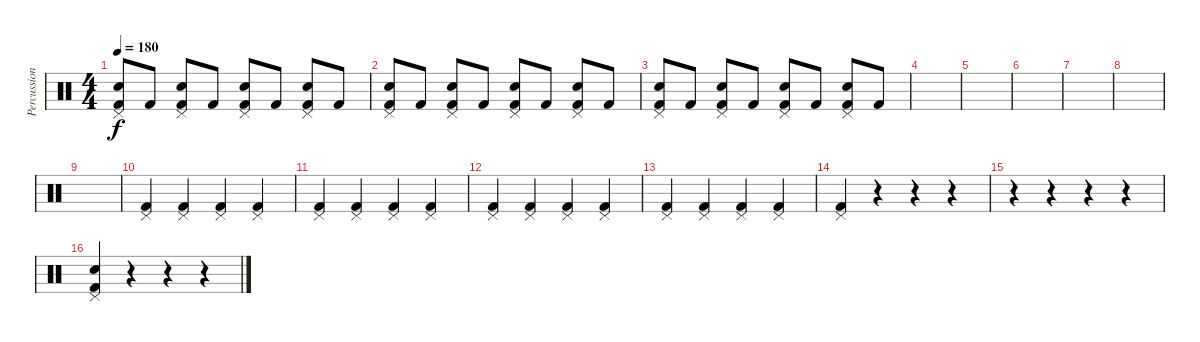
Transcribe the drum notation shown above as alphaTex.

\track ("Percussion" "Percussion") {instrument percussion}
\staff {score}
\articulation defaults
\ts (4 4)
\tempo 180
\clef neutral
\ks c
("Snare (hit) 2" "Pedal Hi-Hat (hit)" "Kick (hit) 2").8{dy f} "Kick (hit) 2".8 ("Snare (hit) 2" "Pedal Hi-Hat (hit)" "Kick (hit) 2").8 "Kick (hit) 2".8 ("Snare (hit) 2" "Pedal Hi-Hat (hit)" "Kick (hit) 2").8 "Kick (hit) 2".8 ("Snare (hit) 2" "Pedal Hi-Hat (hit)" "Kick (hit) 2").8 "Kick (hit) 2".8 |
("Snare (hit) 2" "Pedal Hi-Hat (hit)" "Kick (hit) 2").8 "Kick (hit) 2".8 ("Snare (hit) 2" "Pedal Hi-Hat (hit)" "Kick (hit) 2").8 "Kick (hit) 2".8 ("Snare (hit) 2" "Pedal Hi-Hat (hit)" "Kick (hit) 2").8 "Kick (hit) 2".8 ("Snare (hit) 2" "Pedal Hi-Hat (hit)" "Kick (hit) 2").8 "Kick (hit) 2".8 |
("Snare (hit) 2" "Pedal Hi-Hat (hit)" "Kick (hit) 2").8 "Kick (hit) 2".8 ("Snare (hit) 2" "Pedal Hi-Hat (hit)" "Kick (hit) 2").8 "Kick (hit) 2".8 ("Snare (hit) 2" "Pedal Hi-Hat (hit)" "Kick (hit) 2").8 "Kick (hit) 2".8 ("Snare (hit) 2" "Pedal Hi-Hat (hit)" "Kick (hit) 2").8 "Kick (hit) 2".8 |
|
|
|
|
|
|
("Pedal Hi-Hat (hit)" "Kick (hit) 2").4 ("Pedal Hi-Hat (hit)" "Kick (hit) 2").4 ("Pedal Hi-Hat (hit)" "Kick (hit) 2").4 ("Pedal Hi-Hat (hit)" "Kick (hit) 2").4 |
("Pedal Hi-Hat (hit)" "Kick (hit) 2").4 ("Pedal Hi-Hat (hit)" "Kick (hit) 2").4 ("Pedal Hi-Hat (hit)" "Kick (hit) 2").4 ("Pedal Hi-Hat (hit)" "Kick (hit) 2").4 |
("Pedal Hi-Hat (hit)" "Kick (hit) 2").4 ("Pedal Hi-Hat (hit)" "Kick (hit) 2").4 ("Pedal Hi-Hat (hit)" "Kick (hit) 2").4 ("Pedal Hi-Hat (hit)" "Kick (hit) 2").4 |
("Pedal Hi-Hat (hit)" "Kick (hit) 2").4 ("Pedal Hi-Hat (hit)" "Kick (hit) 2").4 ("Pedal Hi-Hat (hit)" "Kick (hit) 2").4 ("Pedal Hi-Hat (hit)" "Kick (hit) 2").4 |
("Pedal Hi-Hat (hit)" "Kick (hit) 2").4 r.4 r.4 r.4 |
r.4 r.4 r.4 r.4 |
("Snare (hit) 2" "Pedal Hi-Hat (hit)" "Kick (hit) 2").4 r.4 r.4 r.4
